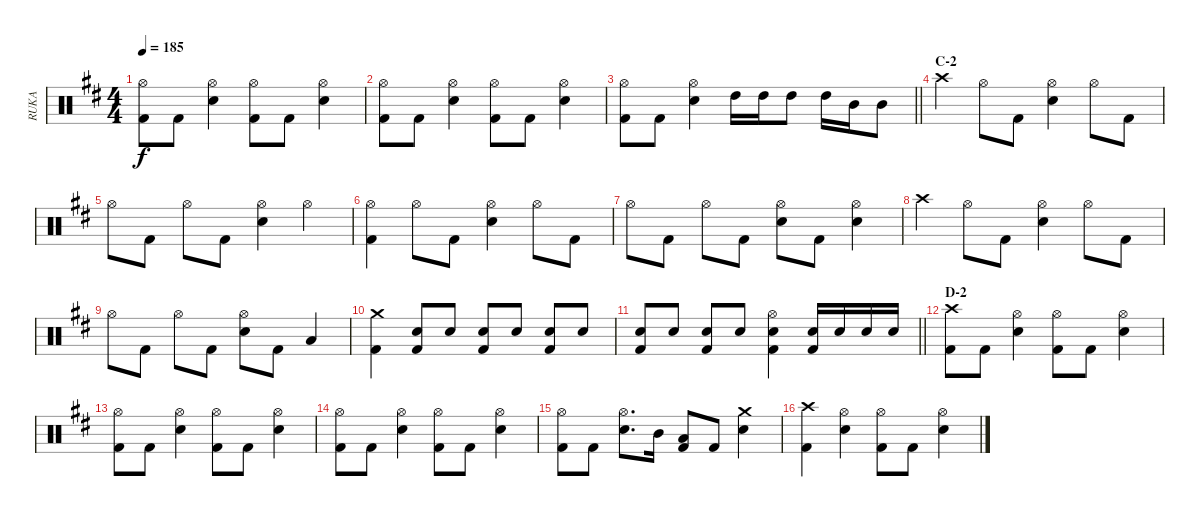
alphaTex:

\track ("RUKA" "RUKA") {instrument percussion}
\staff {score}
\articulation defaults
\ts (4 4)
\tempo 185
\clef neutral
\ks d
("Hi-Hat (open)" "Kick (hit) 2").8{dy f} "Kick (hit) 2".8 ("Hi-Hat (open)" "Snare (hit) 2").4 ("Hi-Hat (open)" "Kick (hit) 2").8 "Kick (hit) 2".8 ("Hi-Hat (open)" "Snare (hit) 2").4 |
("Hi-Hat (open)" "Kick (hit) 2").8 "Kick (hit) 2".8 ("Hi-Hat (open)" "Snare (hit) 2").4 ("Hi-Hat (open)" "Kick (hit) 2").8 "Kick (hit) 2".8 ("Hi-Hat (open)" "Snare (hit) 2").4 |
\barLineRight lightlight
("Hi-Hat (open)" "Kick (hit) 2").8 "Kick (hit) 2".8 ("Hi-Hat (open)" "Snare (hit) 2").4 "High Tom (hit)".16 "High Tom (hit)".16 "High Tom (hit)".8 "High Tom (hit)".16 "Mid Tom (hit)".16 "Mid Tom (hit)".8 |
\section ("" "C-2")
"Crash high (hit)".4 "Hi-Hat (open)".8 "Kick (hit) 2".8 ("Hi-Hat (open)" "Snare (hit) 2").4 "Hi-Hat (open)".8 "Kick (hit) 2".8 |
"Hi-Hat (open)".8 "Kick (hit) 2".8 "Hi-Hat (open)".8 "Kick (hit) 2".8 ("Hi-Hat (open)" "Snare (hit) 2").4 "Hi-Hat (open)".4 |
("Hi-Hat (open)" "Kick (hit) 2").4 "Hi-Hat (open)".8 "Kick (hit) 2".8 ("Hi-Hat (open)" "Snare (hit) 2").4 "Hi-Hat (open)".8 "Kick (hit) 2".8 |
"Hi-Hat (open)".8 "Kick (hit) 2".8 "Hi-Hat (open)".8 "Kick (hit) 2".8 ("Hi-Hat (open)" "Snare (hit) 2").8 "Kick (hit) 2".8 ("Hi-Hat (open)" "Snare (hit) 2").4 |
"Crash high (hit)".4 "Hi-Hat (open)".8 "Kick (hit) 2".8 ("Hi-Hat (open)" "Snare (hit) 2").4 "Hi-Hat (open)".8 "Kick (hit) 2".8 |
"Hi-Hat (open)".8 "Kick (hit) 2".8 "Hi-Hat (open)".8 "Kick (hit) 2".8 ("Hi-Hat (open)" "Snare (hit) 2").8 "Kick (hit) 2".8 "Low Tom (hit)".4 |
("Crash medium (hit)" "Kick (hit) 2").4 ("Snare (hit) 2" "Kick (hit) 2").8 "Snare (hit) 2".8 ("Snare (hit) 2" "Kick (hit) 2").8 "Snare (hit) 2".8 ("Snare (hit) 2" "Kick (hit) 2").8 "Snare (hit) 2".8 |
\barLineRight lightlight
("Snare (hit) 2" "Kick (hit) 2").8 "Snare (hit) 2".8 ("Snare (hit) 2" "Kick (hit) 2").8 "Snare (hit) 2".8 ("Hi-Hat (open)" "Snare (hit) 2" "Kick (hit) 2").4 ("Snare (hit) 2" "Kick (hit) 2").16 "Snare (hit) 2".16 "Snare (hit) 2".16 "Snare (hit) 2".16 |
\section ("" "D-2")
("Crash high (hit)" "Kick (hit) 2").8 "Kick (hit) 2".8 ("Hi-Hat (open)" "Snare (hit) 2").4 ("Hi-Hat (open)" "Kick (hit) 2").8 "Kick (hit) 2".8 ("Hi-Hat (open)" "Snare (hit) 2").4 |
("Hi-Hat (open)" "Kick (hit) 2").8 "Kick (hit) 2".8 ("Hi-Hat (open)" "Snare (hit) 2").4 ("Hi-Hat (open)" "Kick (hit) 2").8 "Kick (hit) 2".8 ("Hi-Hat (open)" "Snare (hit) 2").4 |
("Hi-Hat (open)" "Kick (hit) 2").8 "Kick (hit) 2".8 ("Hi-Hat (open)" "Snare (hit) 2").4 ("Hi-Hat (open)" "Kick (hit) 2").8 "Kick (hit) 2".8 ("Hi-Hat (open)" "Snare (hit) 2").4 |
("Hi-Hat (open)" "Kick (hit) 2").8 "Kick (hit) 2".8 ("Hi-Hat (open)" "Snare (hit) 2").8{d} "Mid Tom (hit)".16 ("Low Tom (hit)" "Kick (hit) 2").8 "Kick (hit) 2".8 ("Crash medium (hit)" "Snare (hit) 2").4 |
("Crash high (hit)" "Kick (hit) 2").4 ("Hi-Hat (open)" "Snare (hit) 2").4 ("Hi-Hat (open)" "Kick (hit) 2").8 "Kick (hit) 2".8 ("Hi-Hat (open)" "Snare (hit) 2").4
